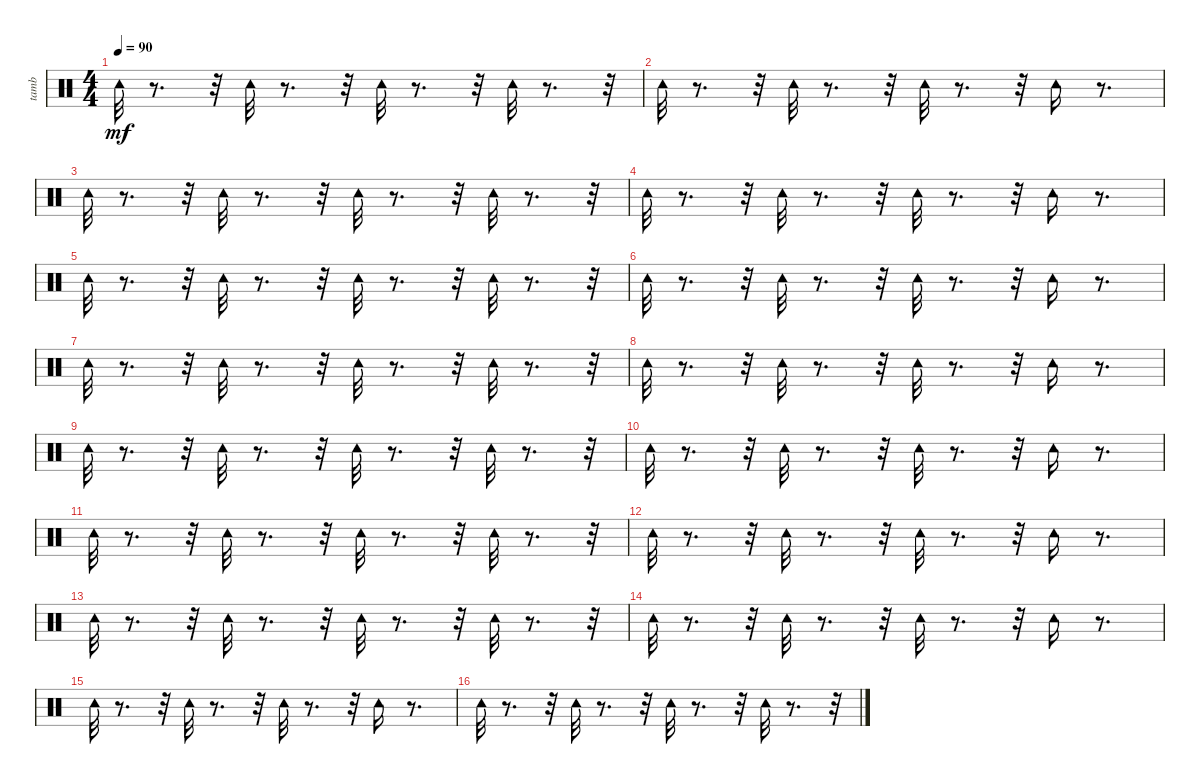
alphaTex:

\track ("tamb" "tamb") {instrument percussion}
\staff {score}
\articulation defaults
\ts (4 4)
\tempo 90
\clef neutral
\ks c "Tambourine (hit)".32{dy mf}
r.8{d} r.32 "Tambourine (hit)".32 r.8{d} r.32 "Tambourine (hit)".32 r.8{d} r.32 "Tambourine (hit)".32 r.8{d} r.32 |
"Tambourine (hit)".32 r.8{d} r.32 "Tambourine (hit)".32 r.8{d} r.32 "Tambourine (hit)".32 r.8{d} r.32 "Tambourine (hit)".16 r.8{d} |
"Tambourine (hit)".32 r.8{d} r.32 "Tambourine (hit)".32 r.8{d} r.32 "Tambourine (hit)".32 r.8{d} r.32 "Tambourine (hit)".32 r.8{d} r.32 |
"Tambourine (hit)".32 r.8{d} r.32 "Tambourine (hit)".32 r.8{d} r.32 "Tambourine (hit)".32 r.8{d} r.32 "Tambourine (hit)".16 r.8{d} |
"Tambourine (hit)".32 r.8{d} r.32 "Tambourine (hit)".32 r.8{d} r.32 "Tambourine (hit)".32 r.8{d} r.32 "Tambourine (hit)".32 r.8{d} r.32 |
"Tambourine (hit)".32 r.8{d} r.32 "Tambourine (hit)".32 r.8{d} r.32 "Tambourine (hit)".32 r.8{d} r.32 "Tambourine (hit)".16 r.8{d} |
"Tambourine (hit)".32 r.8{d} r.32 "Tambourine (hit)".32 r.8{d} r.32 "Tambourine (hit)".32 r.8{d} r.32 "Tambourine (hit)".32 r.8{d} r.32 |
"Tambourine (hit)".32 r.8{d} r.32 "Tambourine (hit)".32 r.8{d} r.32 "Tambourine (hit)".32 r.8{d} r.32 "Tambourine (hit)".16 r.8{d} |
"Tambourine (hit)".32 r.8{d} r.32 "Tambourine (hit)".32 r.8{d} r.32 "Tambourine (hit)".32 r.8{d} r.32 "Tambourine (hit)".32 r.8{d} r.32 |
"Tambourine (hit)".32 r.8{d} r.32 "Tambourine (hit)".32 r.8{d} r.32 "Tambourine (hit)".32 r.8{d} r.32 "Tambourine (hit)".16 r.8{d} |
"Tambourine (hit)".32 r.8{d} r.32 "Tambourine (hit)".32 r.8{d} r.32 "Tambourine (hit)".32 r.8{d} r.32 "Tambourine (hit)".32 r.8{d} r.32 |
"Tambourine (hit)".32 r.8{d} r.32 "Tambourine (hit)".32 r.8{d} r.32 "Tambourine (hit)".32 r.8{d} r.32 "Tambourine (hit)".16 r.8{d} |
"Tambourine (hit)".32 r.8{d} r.32 "Tambourine (hit)".32 r.8{d} r.32 "Tambourine (hit)".32 r.8{d} r.32 "Tambourine (hit)".32 r.8{d} r.32 |
"Tambourine (hit)".32 r.8{d} r.32 "Tambourine (hit)".32 r.8{d} r.32 "Tambourine (hit)".32 r.8{d} r.32 "Tambourine (hit)".16 r.8{d} |
"Tambourine (hit)".32 r.8{d} r.32 "Tambourine (hit)".32 r.8{d} r.32 "Tambourine (hit)".32 r.8{d} r.32 "Tambourine (hit)".16 r.8{d} |
"Tambourine (hit)".32 r.8{d} r.32 "Tambourine (hit)".32 r.8{d} r.32 "Tambourine (hit)".32 r.8{d} r.32 "Tambourine (hit)".32 r.8{d} r.32
